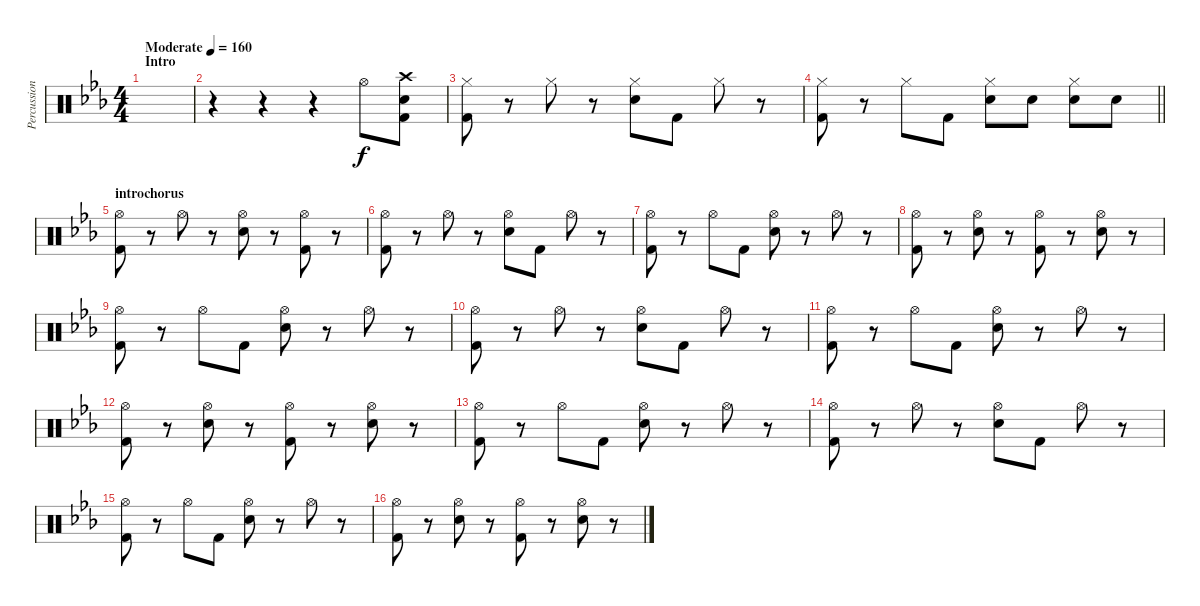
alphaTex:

\track ("Percussion" "Percussion") {instrument percussion}
\staff {score}
\articulation defaults
\ts (4 4)
\section ("" "Intro")
\tempo (160 "Moderate")
\clef neutral
\ks cminor
|
r.4 r.4 r.4 "Hi-Hat (open)".8 ("Crash high (hit)" "Snare (hit) 2" "Kick (hit) 2").8 |
("Hi-Hat (closed)" "Kick (hit) 2").8 r.8 "Hi-Hat (closed)".8 r.8 ("Hi-Hat (closed)" "Snare (hit) 2").8 "Kick (hit) 2".8 "Hi-Hat (closed)".8 r.8 |
\barLineRight lightlight
("Hi-Hat (closed)" "Kick (hit) 2").8 r.8 "Hi-Hat (closed)".8 "Kick (hit) 2".8 ("Hi-Hat (closed)" "Snare (hit) 2").8 "Snare (hit) 2".8 ("Hi-Hat (closed)" "Snare (hit) 2").8 "Snare (hit) 2".8 |
\section ("" "introchorus")
("Hi-Hat (open)" "Kick (hit) 2").8 r.8 "Hi-Hat (open)".8 r.8 ("Hi-Hat (open)" "Snare (hit) 2").8 r.8 ("Hi-Hat (open)" "Kick (hit) 2").8 r.8 |
("Hi-Hat (open)" "Kick (hit) 2").8 r.8 "Hi-Hat (open)".8 r.8 ("Hi-Hat (open)" "Snare (hit) 2").8 "Kick (hit) 2".8 "Hi-Hat (open)".8 r.8 |
("Hi-Hat (open)" "Kick (hit) 2").8 r.8 "Hi-Hat (open)".8 "Kick (hit) 2".8 ("Hi-Hat (open)" "Snare (hit) 2").8 r.8 "Hi-Hat (open)".8 r.8 |
("Hi-Hat (open)" "Kick (hit) 2").8 r.8 ("Hi-Hat (open)" "Snare (hit) 2").8 r.8 ("Hi-Hat (open)" "Kick (hit) 2").8 r.8 ("Hi-Hat (open)" "Snare (hit) 2").8 r.8 |
("Hi-Hat (open)" "Kick (hit) 2").8 r.8 "Hi-Hat (open)".8 "Kick (hit) 2".8 ("Hi-Hat (open)" "Snare (hit) 2").8 r.8 "Hi-Hat (open)".8 r.8 |
("Hi-Hat (open)" "Kick (hit) 2").8 r.8 "Hi-Hat (open)".8 r.8 ("Hi-Hat (open)" "Snare (hit) 2").8 "Kick (hit) 2".8 "Hi-Hat (open)".8 r.8 |
("Hi-Hat (open)" "Kick (hit) 2").8 r.8 "Hi-Hat (open)".8 "Kick (hit) 2".8 ("Hi-Hat (open)" "Snare (hit) 2").8 r.8 "Hi-Hat (open)".8 r.8 |
("Hi-Hat (open)" "Kick (hit) 2").8 r.8 ("Hi-Hat (open)" "Snare (hit) 2").8 r.8 ("Hi-Hat (open)" "Kick (hit) 2").8 r.8 ("Hi-Hat (open)" "Snare (hit) 2").8 r.8 |
("Hi-Hat (open)" "Kick (hit) 2").8 r.8 "Hi-Hat (open)".8 "Kick (hit) 2".8 ("Hi-Hat (open)" "Snare (hit) 2").8 r.8 "Hi-Hat (open)".8 r.8 |
("Hi-Hat (open)" "Kick (hit) 2").8 r.8 "Hi-Hat (open)".8 r.8 ("Hi-Hat (open)" "Snare (hit) 2").8 "Kick (hit) 2".8 "Hi-Hat (open)".8 r.8 |
("Hi-Hat (open)" "Kick (hit) 2").8 r.8 "Hi-Hat (open)".8 "Kick (hit) 2".8 ("Hi-Hat (open)" "Snare (hit) 2").8 r.8 "Hi-Hat (open)".8 r.8 |
("Hi-Hat (open)" "Kick (hit) 2").8 r.8 ("Hi-Hat (open)" "Snare (hit) 2").8 r.8 ("Hi-Hat (open)" "Kick (hit) 2").8 r.8 ("Hi-Hat (open)" "Snare (hit) 2").8 r.8
